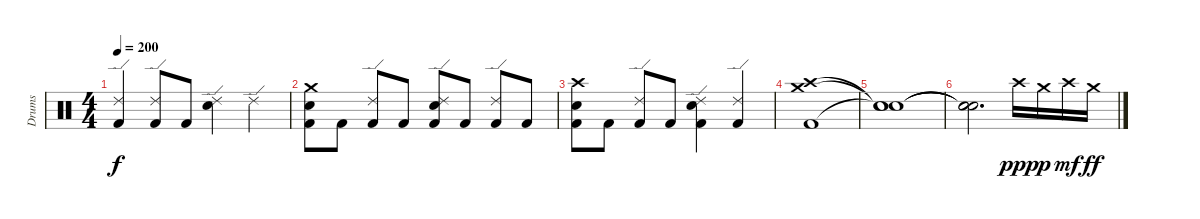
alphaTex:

\track ("Drums" "Drums") {instrument percussion}
\staff {score}
\articulation defaults
\ts (4 4)
\tempo 200
\clef neutral
\ks c
("Ride (edge) 2" "Kick (hit) 2").4{dy f} ("Ride (edge) 2" "Kick (hit) 2").8 "Kick (hit) 2".8 ("Ride (edge) 2" "Snare (hit) 2").4 "Ride (edge) 2".4 |
("Crash medium (hit)" "Snare (hit) 2" "Kick (hit) 2").8 "Kick (hit) 2".8 ("Ride (edge) 2" "Kick (hit) 2").8 "Kick (hit) 2".8 ("Ride (edge) 2" "Snare (hit) 2" "Kick (hit) 2").8 "Kick (hit) 2".8 ("Ride (edge) 2" "Kick (hit) 2").8 "Kick (hit) 2".8 |
("Crash high (hit)" "Snare (hit) 2" "Kick (hit) 2").8 "Kick (hit) 2".8 ("Ride (edge) 2" "Kick (hit) 2").8 "Kick (hit) 2".8 ("Ride (edge) 2" "Snare (hit) 2" "Kick (hit) 2").4 ("Ride (edge) 2" "Kick (hit) 2").4 |
("Crash medium (hit)" "Crash high (hit)" "Kick (hit) 2").1 |
("Snare (hit)"{t} "Snare (hit)"{t} "Snare (hit)"{t}).1 |
("Snare (hit)"{t} "Snare (hit)"{t} "Snare (hit)"{t}).2{d} "Crash high (hit)".16{dy ppp} "Crash medium (hit)".16{dy p} "Crash high (hit)".16{dy mf} "Crash medium (hit)".16{dy ff}
